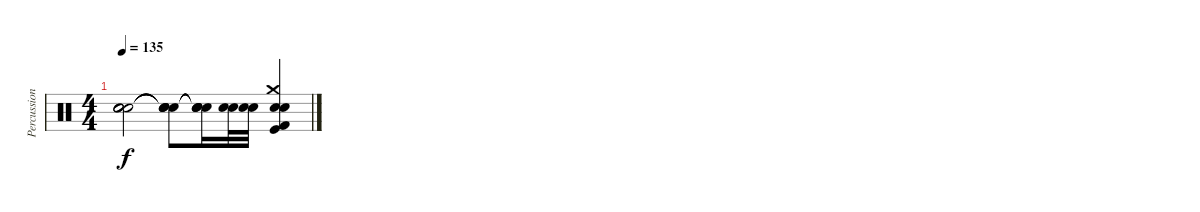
\track ("Percussion" "Percussion") {instrument percussion}
\staff {score}
\articulation defaults
\ts (4 4)
\tempo 135
\clef neutral
\ks c
("Snare (hit)"{t} "Snare (hit)"{t} "Snare (hit)"{t} "Snare (hit)"{t}).2{dy f} ("Snare (hit)"{t} "Snare (hit)"{t} "Snare (hit)"{t} "Snare (hit)"{t}).8 ("Snare (hit)"{t} "Snare (hit)"{t} "Snare (hit)"{t} "Snare (hit)"{t}).16 ("Electric Snare (hit)" "Metronome (bell)").32 ("Electric Snare (hit)" "Metronome (bell)").32 ("Crash medium (hit)" "Electric Snare (hit)" "Metronome (bell)" "Kick (hit)" "Kick (hit) 2").4
